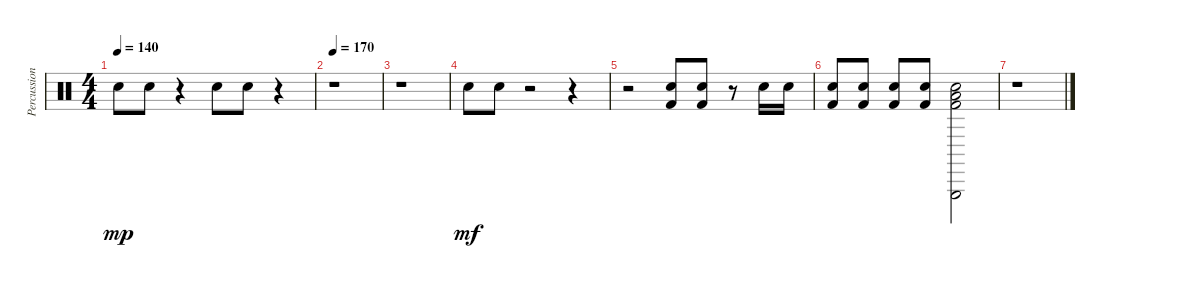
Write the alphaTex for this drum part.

\track ("Percussion" "Percussion") {instrument percussion}
\staff {score}
\articulation defaults
\ts (4 4)
\tempo 140
\clef neutral
\ks c "Snare (hit) 2".8{dy mp} "Snare (hit) 2".8
r.4 "Snare (hit) 2".8 "Snare (hit) 2".8 r.4 |
\tempo 170
r.1 |
r.1 |
"Snare (hit) 2".8{dy mf} "Snare (hit) 2".8 r.2 r.4 |
r.2 ("Snare (hit) 2" "Kick (hit) 2").8 ("Snare (hit) 2" "Kick (hit) 2").8 r.8 "Snare (hit) 2".16 "Snare (hit) 2".16 |
("Snare (hit) 2" "Kick (hit) 2").8 ("Snare (hit) 2" "Kick (hit) 2").8 ("Snare (hit) 2" "Kick (hit) 2").8 ("Snare (hit) 2" "Kick (hit) 2").8 ("Triangle (hit)" "Snare (hit) 2" "Low Floor Tom (hit)" "Kick (hit) 2").2 |
r.1
